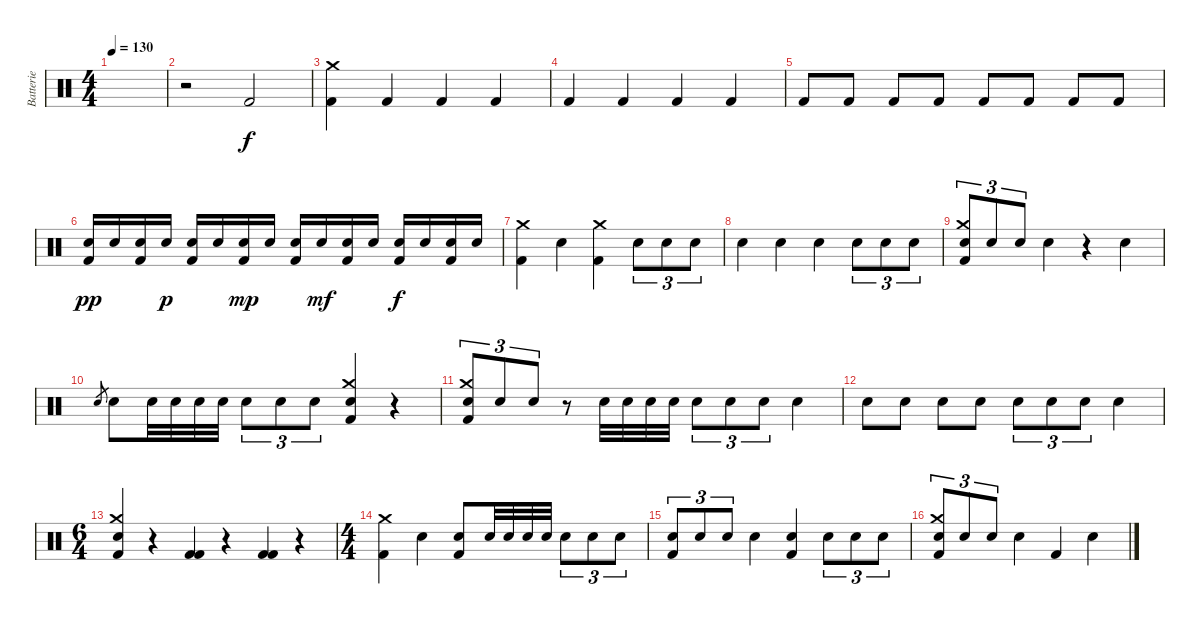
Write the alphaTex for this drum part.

\track ("Batterie" "Batterie") {instrument percussion}
\staff {score}
\articulation defaults
\ts (4 4)
\tempo 130
\clef neutral
\ks c
|
r.2 "Kick (hit) 2".2 |
("Crash medium (hit)" "Kick (hit) 2").4 "Kick (hit) 2".4 "Kick (hit) 2".4 "Kick (hit) 2".4 |
"Kick (hit) 2".4 "Kick (hit) 2".4 "Kick (hit) 2".4 "Kick (hit) 2".4 |
"Kick (hit) 2".8 "Kick (hit) 2".8 "Kick (hit) 2".8 "Kick (hit) 2".8 "Kick (hit) 2".8 "Kick (hit) 2".8 "Kick (hit) 2".8 "Kick (hit) 2".8 |
("Snare (hit) 2" "Kick (hit) 2").16{dy pp} "Snare (hit) 2".16 ("Snare (hit) 2" "Kick (hit) 2").16 "Snare (hit) 2".16{dy p} ("Snare (hit) 2" "Kick (hit) 2").16 "Snare (hit) 2".16 ("Snare (hit) 2" "Kick (hit) 2").16{dy mp} "Snare (hit) 2".16 ("Snare (hit) 2" "Kick (hit) 2").16 "Snare (hit) 2".16{dy mf} ("Snare (hit) 2" "Kick (hit) 2").16 "Snare (hit) 2".16 ("Snare (hit) 2" "Kick (hit) 2").16{dy f} "Snare (hit) 2".16 ("Snare (hit) 2" "Kick (hit) 2").16 "Snare (hit) 2".16 |
("Crash medium (hit)" "Kick (hit) 2").4 "Snare (hit) 2".4 ("Crash medium (hit)" "Kick (hit) 2").4 "Snare (hit) 2".8{tu (3 2)} "Snare (hit) 2".8{tu (3 2)} "Snare (hit) 2".8{tu (3 2)} |
"Snare (hit) 2".4 "Snare (hit) 2".4 "Snare (hit) 2".4 "Snare (hit) 2".8{tu (3 2)} "Snare (hit) 2".8{tu (3 2)} "Snare (hit) 2".8{tu (3 2)} |
("Crash medium (hit)" "Snare (hit) 2" "Kick (hit) 2").8{tu (3 2)} "Snare (hit) 2".8{tu (3 2)} "Snare (hit) 2".8{tu (3 2)} "Snare (hit) 2".4 r.4 "Snare (hit) 2".4 |
"Snare (hit) 2".8{gr} "Snare (hit) 2".8 "Snare (hit) 2".32 "Snare (hit) 2".32 "Snare (hit) 2".32 "Snare (hit) 2".32 "Snare (hit) 2".8{tu (3 2)} "Snare (hit) 2".8{tu (3 2)} "Snare (hit) 2".8{tu (3 2)} ("Crash medium (hit)" "Snare (hit) 2" "Kick (hit) 2").4 r.4 |
("Crash medium (hit)" "Snare (hit) 2" "Kick (hit) 2").8{tu (3 2)} "Snare (hit) 2".8{tu (3 2)} "Snare (hit) 2".8{tu (3 2)} r.8 "Snare (hit) 2".32 "Snare (hit) 2".32 "Snare (hit) 2".32 "Snare (hit) 2".32 "Snare (hit) 2".8{tu (3 2)} "Snare (hit) 2".8{tu (3 2)} "Snare (hit) 2".8{tu (3 2)} "Snare (hit) 2".4 |
"Snare (hit) 2".8 "Snare (hit) 2".8 "Snare (hit) 2".8 "Snare (hit) 2".8 "Snare (hit) 2".8{tu (3 2)} "Snare (hit) 2".8{tu (3 2)} "Snare (hit) 2".8{tu (3 2)} "Snare (hit) 2".4 |
\ts (6 4)
("Crash medium (hit)" "Snare (hit) 2" "Kick (hit) 2").4 r.4 ("Kick (hit) 2" "Kick (hit) 2").4 r.4 ("Kick (hit) 2" "Kick (hit) 2").4 r.4 |
\ts (4 4)
("Crash medium (hit)" "Kick (hit) 2").4 "Snare (hit) 2".4 ("Snare (hit) 2" "Kick (hit) 2").8 "Snare (hit) 2".32 "Snare (hit) 2".32 "Snare (hit) 2".32 "Snare (hit) 2".32 "Snare (hit) 2".8{tu (3 2)} "Snare (hit) 2".8{tu (3 2)} "Snare (hit) 2".8{tu (3 2)} |
("Snare (hit) 2" "Kick (hit) 2").8{tu (3 2)} "Snare (hit) 2".8{tu (3 2)} "Snare (hit) 2".8{tu (3 2)} "Snare (hit) 2".4 ("Snare (hit) 2" "Kick (hit) 2").4 "Snare (hit) 2".8{tu (3 2)} "Snare (hit) 2".8{tu (3 2)} "Snare (hit) 2".8{tu (3 2)} |
("Crash medium (hit)" "Snare (hit) 2" "Kick (hit) 2").8{tu (3 2)} "Snare (hit) 2".8{tu (3 2)} "Snare (hit) 2".8{tu (3 2)} "Snare (hit) 2".4 "Kick (hit) 2".4 "Snare (hit) 2".4
